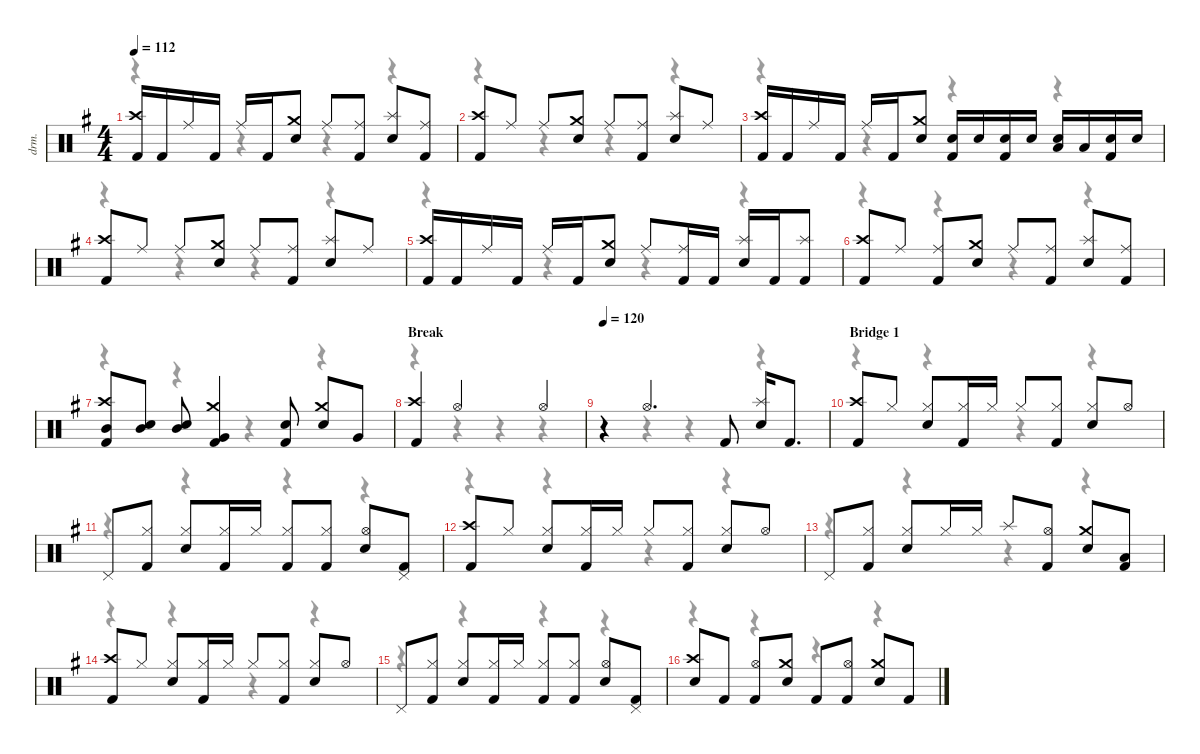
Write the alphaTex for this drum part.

\defaultSystemsLayout 4
\hideDynamics
\bracketExtendMode nobrackets
\track ("Drums" "drm.") {instrument percussion}
\staff {score}
\articulation defaults
\voice
\ts (4 4)
\tempo 112
\clef neutral
\ks g
("Crash high (hit)"{acc forcenatural} "Kick (hit) 2"{acc forcenatural}).16{dy mf} "Kick (hit) 2"{acc forcenatural}.16{dy f} "Ride (middle)"{acc forcenatural}.16{dy mf} "Kick (hit) 2"{acc forcenatural}.16 "Ride (middle)"{acc forcenatural}.16 "Kick (hit) 2"{acc forcenatural}.16 ("Crash medium (hit)"{acc forcenatural} "Snare (hit) 2"{acc forcenatural}).8 "Ride (middle)"{acc forcenatural}.8 ("Ride (middle)"{acc forcenatural} "Kick (hit) 2"{acc forcenatural}).8 ("Splash (hit)"{acc forcenatural} "Snare (hit) 2"{acc forcenatural}).8 ("Ride (middle)"{acc forcenatural} "Kick (hit) 2"{acc forcenatural}).8{dy f} |
("Crash high (hit)"{acc forcenatural} "Kick (hit) 2"{acc forcenatural}).8{dy mf} "Ride (middle)"{acc forcenatural}.8 "Ride (middle)"{acc forcenatural}.8 ("Crash medium (hit)"{acc forcenatural} "Snare (hit) 2"{acc forcenatural}).8 "Ride (middle)"{acc forcenatural}.8 ("Ride (middle)"{acc forcenatural} "Kick (hit) 2"{acc forcenatural}).8 ("Splash (hit)"{acc forcenatural} "Snare (hit) 2"{acc forcenatural}).8 "Ride (middle)"{acc forcenatural}.8 |
("Crash high (hit)"{acc forcenatural} "Kick (hit) 2"{acc forcenatural}).16 "Kick (hit) 2"{acc forcenatural}.16{dy f} "Ride (middle)"{acc forcenatural}.16{dy mf} "Kick (hit) 2"{acc forcenatural}.16 "Ride (middle)"{acc forcenatural}.16 "Kick (hit) 2"{acc forcenatural}.16 ("Crash medium (hit)"{acc forcenatural} "Snare (hit) 2"{acc forcenatural}).8 ("Snare (hit) 2"{acc forcenatural} "Kick (hit) 2"{acc forcenatural}).16{dy f} "Snare (hit) 2"{acc forcenatural}.16 ("Kick (hit) 2"{acc forcenatural} "Snare (hit) 2"{acc forcenatural}).16{dy mf} "Snare (hit) 2"{acc forcenatural}.16{dy f} ("Snare (hit) 2"{acc forcenatural} "Low Tom (hit)"{acc forcenatural}).16{dy mf} "Low Tom (hit)"{acc forcenatural}.16{dy f} ("Kick (hit) 2"{acc forcenatural} "Snare (hit) 2"{acc forcenatural}).16{dy mf} "Snare (hit) 2"{acc forcenatural}.16{dy f} |
("Crash high (hit)"{acc forcenatural} "Kick (hit) 2"{acc forcenatural}).8{dy mf} "Ride (middle)"{acc forcenatural}.8 "Ride (middle)"{acc forcenatural}.8 ("Crash medium (hit)"{acc forcenatural} "Snare (hit) 2"{acc forcenatural}).8 "Ride (middle)"{acc forcenatural}.8 ("Ride (middle)"{acc forcenatural} "Kick (hit) 2"{acc forcenatural}).8 ("Splash (hit)"{acc forcenatural} "Snare (hit) 2"{acc forcenatural}).8 "Ride (middle)"{acc forcenatural}.8 |
("Crash high (hit)"{acc forcenatural} "Kick (hit) 2"{acc forcenatural}).16 "Kick (hit) 2"{acc forcenatural}.16{dy f} "Ride (middle)"{acc forcenatural}.16{dy mf} "Kick (hit) 2"{acc forcenatural}.16 "Ride (middle)"{acc forcenatural}.16 "Kick (hit) 2"{acc forcenatural}.16 ("Crash medium (hit)"{acc forcenatural} "Snare (hit) 2"{acc forcenatural}).8 "Ride (middle)"{acc forcenatural}.8 ("Ride (middle)"{acc forcenatural} "Kick (hit) 2"{acc forcenatural}).16 "Kick (hit) 2"{acc forcenatural}.16{dy f} ("Splash (hit)"{acc forcenatural} "Snare (hit) 2"{acc forcenatural}).16{dy mf} "Kick (hit) 2"{acc forcenatural}.16{dy f} ("Splash (hit)"{acc forcenatural} "Kick (hit) 2"{acc forcenatural}).8{dy mf} |
("Crash high (hit)"{acc forcenatural} "Kick (hit) 2"{acc forcenatural}).8 "Ride (middle)"{acc forcenatural}.8 ("Kick (hit) 2"{acc forcenatural} "Ride (middle)"{acc forcenatural}).8{dy f} ("Crash medium (hit)"{acc forcenatural} "Snare (hit) 2"{acc forcenatural}).8{dy mf} "Ride (middle)"{acc forcenatural}.8 ("Ride (middle)"{acc forcenatural} "Kick (hit) 2"{acc forcenatural}).8 ("Splash (hit)"{acc forcenatural} "Snare (hit) 2"{acc forcenatural}).8 ("Kick (hit) 2"{acc forcenatural} "Ride (middle)"{acc forcenatural}).8{dy f} |
("Crash high (hit)"{acc forcenatural} "Kick (hit) 2"{acc forcenatural} "Mid Tom (hit)"{acc forcenatural}).8{dy mf} ("Snare (hit) 2"{acc forcenatural} "Mid Tom (hit)"{acc forcenatural}).8{dy f} ("Snare (hit) 2"{acc forcenatural} "Mid Tom (hit)"{acc forcenatural}).8 ("Crash medium (hit)"{acc forcenatural} "Very Low Tom (hit)"{acc forcenatural} "Kick (hit) 2"{acc forcenatural}).4{dy mf} ("Snare (hit) 2"{acc forcenatural} "Kick (hit) 2"{acc forcenatural}).8{dy f} ("Crash medium (hit)"{acc forcenatural} "Snare (hit) 2"{acc forcenatural}).8{dy mf} "Very Low Tom (hit)"{acc forcenatural}.8{dy f} |
\section ("" "Break")
("Crash high (hit)"{acc forcenatural} "Kick (hit) 2"{acc forcenatural}).4{dy mf} "Hi-Hat (open)"{acc forcenatural}.2{dy f} "Hi-Hat (open)"{acc forcenatural}.4 |
\tempo 120
r.4 "Hi-Hat (open)"{acc forcenatural}.4{d} "Kick (hit) 2"{acc forcenatural}.8 ("Splash (hit)"{acc forcenatural} "Snare (hit) 2"{acc forcenatural}).16 "Kick (hit) 2"{acc forcenatural}.8{d} |
\section ("" "Bridge 1")
("Kick (hit) 2"{acc forcenatural} "Crash high (hit)"{acc forcenatural}).8{dy mf} "Hi-Hat (closed)"{acc forcenatural}.8 ("Snare (hit) 2"{acc forcenatural} "Hi-Hat (closed)"{acc forcenatural}).8 ("Kick (hit) 2"{acc forcenatural} "Hi-Hat (closed)"{acc forcenatural}).16 "Hi-Hat (closed)"{acc forcenatural}.16 "Hi-Hat (closed)"{acc forcenatural}.8 ("Kick (hit) 2"{acc forcenatural} "Hi-Hat (closed)"{acc forcenatural}).8 ("Snare (hit) 2"{acc forcenatural} "Hi-Hat (closed)"{acc forcenatural}).8 "Hi-Hat (open)"{acc forcenatural}.8 |
"Pedal Hi-Hat (hit)"{acc forcenatural}.8 ("Kick (hit) 2"{acc forcenatural} "Hi-Hat (closed)"{acc forcenatural}).8 ("Snare (hit) 2"{acc forcenatural} "Hi-Hat (closed)"{acc forcenatural}).8 ("Kick (hit) 2"{acc forcenatural} "Hi-Hat (closed)"{acc forcenatural}).16 "Hi-Hat (closed)"{acc forcenatural}.16 ("Kick (hit) 2"{acc forcenatural} "Hi-Hat (closed)"{acc forcenatural}).8 ("Kick (hit) 2"{acc forcenatural} "Hi-Hat (closed)"{acc forcenatural}).8 ("Snare (hit) 2"{acc forcenatural} "Hi-Hat (open)"{acc forcenatural}).8 ("Kick (hit) 2"{acc forcenatural} "Pedal Hi-Hat (hit)"{acc forcenatural}).8 |
("Kick (hit) 2"{acc forcenatural} "Crash high (hit)"{acc forcenatural}).8 "Hi-Hat (closed)"{acc forcenatural}.8 ("Snare (hit) 2"{acc forcenatural} "Hi-Hat (closed)"{acc forcenatural}).8 ("Kick (hit) 2"{acc forcenatural} "Hi-Hat (closed)"{acc forcenatural}).16 "Hi-Hat (closed)"{acc forcenatural}.16 "Hi-Hat (closed)"{acc forcenatural}.8 ("Kick (hit) 2"{acc forcenatural} "Hi-Hat (closed)"{acc forcenatural}).8 ("Snare (hit) 2"{acc forcenatural} "Hi-Hat (closed)"{acc forcenatural}).8 "Hi-Hat (open)"{acc forcenatural}.8 |
"Pedal Hi-Hat (hit)"{acc forcenatural}.8 ("Kick (hit) 2"{acc forcenatural} "Hi-Hat (closed)"{acc forcenatural}).8 ("Snare (hit) 2"{acc forcenatural} "Hi-Hat (closed)"{acc forcenatural}).8 "Hi-Hat (closed)"{acc forcenatural}.16 "Hi-Hat (closed)"{acc forcenatural}.16 "Splash (hit)"{acc forcenatural}.8 ("Kick (hit) 2"{acc forcenatural} "Hi-Hat (open)"{acc forcenatural}).8 ("Snare (hit) 2"{acc forcenatural} "Crash medium (hit)"{acc forcenatural}).8 ("Kick (hit) 2"{acc forcenatural} "Low Tom (hit)"{acc forcenatural}).8 |
("Kick (hit) 2"{acc forcenatural} "Crash high (hit)"{acc forcenatural}).8 "Hi-Hat (closed)"{acc forcenatural}.8 ("Snare (hit) 2"{acc forcenatural} "Hi-Hat (closed)"{acc forcenatural}).8 ("Kick (hit) 2"{acc forcenatural} "Hi-Hat (closed)"{acc forcenatural}).16 "Hi-Hat (closed)"{acc forcenatural}.16 "Hi-Hat (closed)"{acc forcenatural}.8 ("Kick (hit) 2"{acc forcenatural} "Hi-Hat (closed)"{acc forcenatural}).8 ("Snare (hit) 2"{acc forcenatural} "Hi-Hat (closed)"{acc forcenatural}).8 "Hi-Hat (open)"{acc forcenatural}.8 |
"Pedal Hi-Hat (hit)"{acc forcenatural}.8 ("Kick (hit) 2"{acc forcenatural} "Hi-Hat (closed)"{acc forcenatural}).8 ("Snare (hit) 2"{acc forcenatural} "Hi-Hat (closed)"{acc forcenatural}).8 ("Kick (hit) 2"{acc forcenatural} "Hi-Hat (closed)"{acc forcenatural}).16 "Hi-Hat (closed)"{acc forcenatural}.16 ("Kick (hit) 2"{acc forcenatural} "Hi-Hat (closed)"{acc forcenatural}).8 ("Kick (hit) 2"{acc forcenatural} "Hi-Hat (closed)"{acc forcenatural}).8 ("Snare (hit) 2"{acc forcenatural} "Hi-Hat (open)"{acc forcenatural}).8 ("Kick (hit) 2"{acc forcenatural} "Pedal Hi-Hat (hit)"{acc forcenatural}).8 |
("Snare (hit) 2"{acc forcenatural} "Crash high (hit)"{acc forcenatural}).8 "Kick (hit) 2"{acc forcenatural}.8 ("Kick (hit) 2"{acc forcenatural} "Hi-Hat (open)"{acc forcenatural}).8 ("Snare (hit) 2"{acc forcenatural} "Crash medium (hit)"{acc forcenatural}).8 "Kick (hit) 2"{acc forcenatural}.8 ("Kick (hit) 2"{acc forcenatural} "Hi-Hat (open)"{acc forcenatural}).8 ("Snare (hit) 2"{acc forcenatural} "Crash medium (hit)"{acc forcenatural}).8 "Kick (hit) 2"{acc forcenatural}.8
\voice
\clef neutral
\ottava regular
\simile none
\ks g
r.4{dy mf} r.4 r.4 r.4 |
r.4 r.4 r.4 r.4 |
r.4 r.4 r.4 r.4 |
r.4 r.4 r.4 r.4 |
r.4 r.4 r.4 r.4 |
r.4 r.4 r.4 r.4 |
r.4 r.4 r.4 r.4 |
r.4 r.4 r.4 r.4 |
r.4 r.4 r.4 r.4 |
r.4 r.4 r.4 r.4 |
r.4 r.4 r.4 r.4 |
r.4 r.4 r.4 r.4 |
r.4 r.4 r.4 r.4 |
r.4 r.4 r.4 r.4 |
r.4 r.4 r.4 r.4 |
r.4 r.4 r.4 r.4
